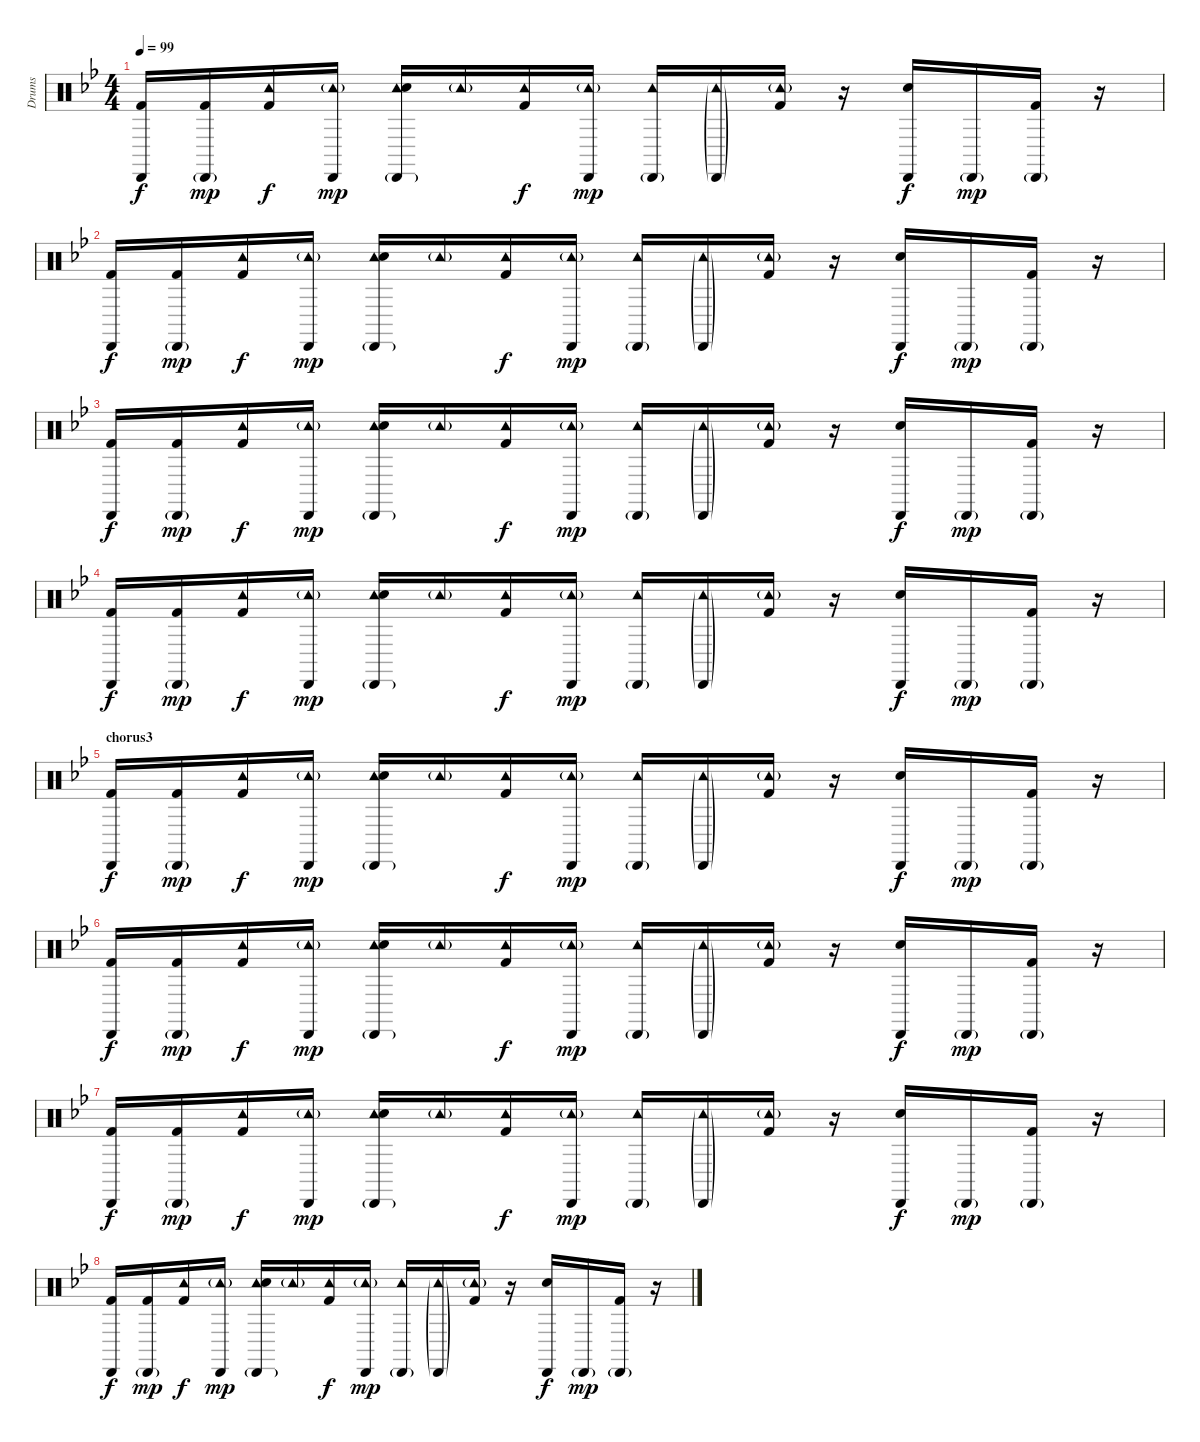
\track ("Drums" "Drums") {instrument percussion}
\staff {score}
\articulation defaults
\ts (4 4)
\tempo 99
\clef neutral
\ks bb
("Cabasa (hit)" "Kick (hit) 2").16{dy f} ("Cabasa (hit)"{g} "Kick (hit) 2").16{dy mp} ("Tambourine (hit)" "Kick (hit) 2").16{dy f} ("Cabasa (hit)" "Tambourine (hit)"{g}).16{dy mp} ("Cabasa (hit)"{g} "Tambourine (hit)" "Snare (hit) 2").16 "Tambourine (hit)"{g}.16 ("Tambourine (hit)" "Kick (hit) 2").16{dy f} ("Cabasa (hit)" "Tambourine (hit)"{g}).16{dy mp} ("Cabasa (hit)"{g} "Tambourine (hit)").16 ("Cabasa (hit)"{g} "Tambourine (hit)"{g}).16 ("Tambourine (hit)"{g} "Kick (hit) 2").16 r.16 ("Cabasa (hit)" "Snare (hit) 2").16{dy f} "Cabasa (hit)"{g}.16{dy mp} ("Cabasa (hit)"{g} "Kick (hit) 2").16 r.16 |
("Cabasa (hit)" "Kick (hit) 2").16{dy f} ("Cabasa (hit)"{g} "Kick (hit) 2").16{dy mp} ("Tambourine (hit)" "Kick (hit) 2").16{dy f} ("Cabasa (hit)" "Tambourine (hit)"{g}).16{dy mp} ("Cabasa (hit)"{g} "Tambourine (hit)" "Snare (hit) 2").16 "Tambourine (hit)"{g}.16 ("Tambourine (hit)" "Kick (hit) 2").16{dy f} ("Cabasa (hit)" "Tambourine (hit)"{g}).16{dy mp} ("Cabasa (hit)"{g} "Tambourine (hit)").16 ("Cabasa (hit)"{g} "Tambourine (hit)"{g}).16 ("Tambourine (hit)"{g} "Kick (hit) 2").16 r.16 ("Cabasa (hit)" "Snare (hit) 2").16{dy f} "Cabasa (hit)"{g}.16{dy mp} ("Cabasa (hit)"{g} "Kick (hit) 2").16 r.16 |
("Cabasa (hit)" "Kick (hit) 2").16{dy f} ("Cabasa (hit)"{g} "Kick (hit) 2").16{dy mp} ("Tambourine (hit)" "Kick (hit) 2").16{dy f} ("Cabasa (hit)" "Tambourine (hit)"{g}).16{dy mp} ("Cabasa (hit)"{g} "Tambourine (hit)" "Snare (hit) 2").16 "Tambourine (hit)"{g}.16 ("Tambourine (hit)" "Kick (hit) 2").16{dy f} ("Cabasa (hit)" "Tambourine (hit)"{g}).16{dy mp} ("Cabasa (hit)"{g} "Tambourine (hit)").16 ("Cabasa (hit)"{g} "Tambourine (hit)"{g}).16 ("Tambourine (hit)"{g} "Kick (hit) 2").16 r.16 ("Cabasa (hit)" "Snare (hit) 2").16{dy f} "Cabasa (hit)"{g}.16{dy mp} ("Cabasa (hit)"{g} "Kick (hit) 2").16 r.16 |
("Cabasa (hit)" "Kick (hit) 2").16{dy f} ("Cabasa (hit)"{g} "Kick (hit) 2").16{dy mp} ("Tambourine (hit)" "Kick (hit) 2").16{dy f} ("Cabasa (hit)" "Tambourine (hit)"{g}).16{dy mp} ("Cabasa (hit)"{g} "Tambourine (hit)" "Snare (hit) 2").16 "Tambourine (hit)"{g}.16 ("Tambourine (hit)" "Kick (hit) 2").16{dy f} ("Cabasa (hit)" "Tambourine (hit)"{g}).16{dy mp} ("Cabasa (hit)"{g} "Tambourine (hit)").16 ("Cabasa (hit)"{g} "Tambourine (hit)"{g}).16 ("Tambourine (hit)"{g} "Kick (hit) 2").16 r.16 ("Cabasa (hit)" "Snare (hit) 2").16{dy f} "Cabasa (hit)"{g}.16{dy mp} ("Cabasa (hit)"{g} "Kick (hit) 2").16 r.16 |
\section ("" "chorus3")
("Cabasa (hit)" "Kick (hit) 2").16{dy f} ("Cabasa (hit)"{g} "Kick (hit) 2").16{dy mp} ("Tambourine (hit)" "Kick (hit) 2").16{dy f} ("Cabasa (hit)" "Tambourine (hit)"{g}).16{dy mp} ("Cabasa (hit)"{g} "Tambourine (hit)" "Snare (hit) 2").16 "Tambourine (hit)"{g}.16 ("Tambourine (hit)" "Kick (hit) 2").16{dy f} ("Cabasa (hit)" "Tambourine (hit)"{g}).16{dy mp} ("Cabasa (hit)"{g} "Tambourine (hit)").16 ("Cabasa (hit)"{g} "Tambourine (hit)"{g}).16 ("Tambourine (hit)"{g} "Kick (hit) 2").16 r.16 ("Cabasa (hit)" "Snare (hit) 2").16{dy f} "Cabasa (hit)"{g}.16{dy mp} ("Cabasa (hit)"{g} "Kick (hit) 2").16 r.16 |
("Cabasa (hit)" "Kick (hit) 2").16{dy f} ("Cabasa (hit)"{g} "Kick (hit) 2").16{dy mp} ("Tambourine (hit)" "Kick (hit) 2").16{dy f} ("Cabasa (hit)" "Tambourine (hit)"{g}).16{dy mp} ("Cabasa (hit)"{g} "Tambourine (hit)" "Snare (hit) 2").16 "Tambourine (hit)"{g}.16 ("Tambourine (hit)" "Kick (hit) 2").16{dy f} ("Cabasa (hit)" "Tambourine (hit)"{g}).16{dy mp} ("Cabasa (hit)"{g} "Tambourine (hit)").16 ("Cabasa (hit)"{g} "Tambourine (hit)"{g}).16 ("Tambourine (hit)"{g} "Kick (hit) 2").16 r.16 ("Cabasa (hit)" "Snare (hit) 2").16{dy f} "Cabasa (hit)"{g}.16{dy mp} ("Cabasa (hit)"{g} "Kick (hit) 2").16 r.16 |
("Cabasa (hit)" "Kick (hit) 2").16{dy f} ("Cabasa (hit)"{g} "Kick (hit) 2").16{dy mp} ("Tambourine (hit)" "Kick (hit) 2").16{dy f} ("Cabasa (hit)" "Tambourine (hit)"{g}).16{dy mp} ("Cabasa (hit)"{g} "Tambourine (hit)" "Snare (hit) 2").16 "Tambourine (hit)"{g}.16 ("Tambourine (hit)" "Kick (hit) 2").16{dy f} ("Cabasa (hit)" "Tambourine (hit)"{g}).16{dy mp} ("Cabasa (hit)"{g} "Tambourine (hit)").16 ("Cabasa (hit)"{g} "Tambourine (hit)"{g}).16 ("Tambourine (hit)"{g} "Kick (hit) 2").16 r.16 ("Cabasa (hit)" "Snare (hit) 2").16{dy f} "Cabasa (hit)"{g}.16{dy mp} ("Cabasa (hit)"{g} "Kick (hit) 2").16 r.16 |
("Cabasa (hit)" "Kick (hit) 2").16{dy f} ("Cabasa (hit)"{g} "Kick (hit) 2").16{dy mp} ("Tambourine (hit)" "Kick (hit) 2").16{dy f} ("Cabasa (hit)" "Tambourine (hit)"{g}).16{dy mp} ("Cabasa (hit)"{g} "Tambourine (hit)" "Snare (hit) 2").16 "Tambourine (hit)"{g}.16 ("Tambourine (hit)" "Kick (hit) 2").16{dy f} ("Cabasa (hit)" "Tambourine (hit)"{g}).16{dy mp} ("Cabasa (hit)"{g} "Tambourine (hit)").16 ("Cabasa (hit)"{g} "Tambourine (hit)"{g}).16 ("Tambourine (hit)"{g} "Kick (hit) 2").16 r.16 ("Cabasa (hit)" "Snare (hit) 2").16{dy f} "Cabasa (hit)"{g}.16{dy mp} ("Cabasa (hit)"{g} "Kick (hit) 2").16 r.16
